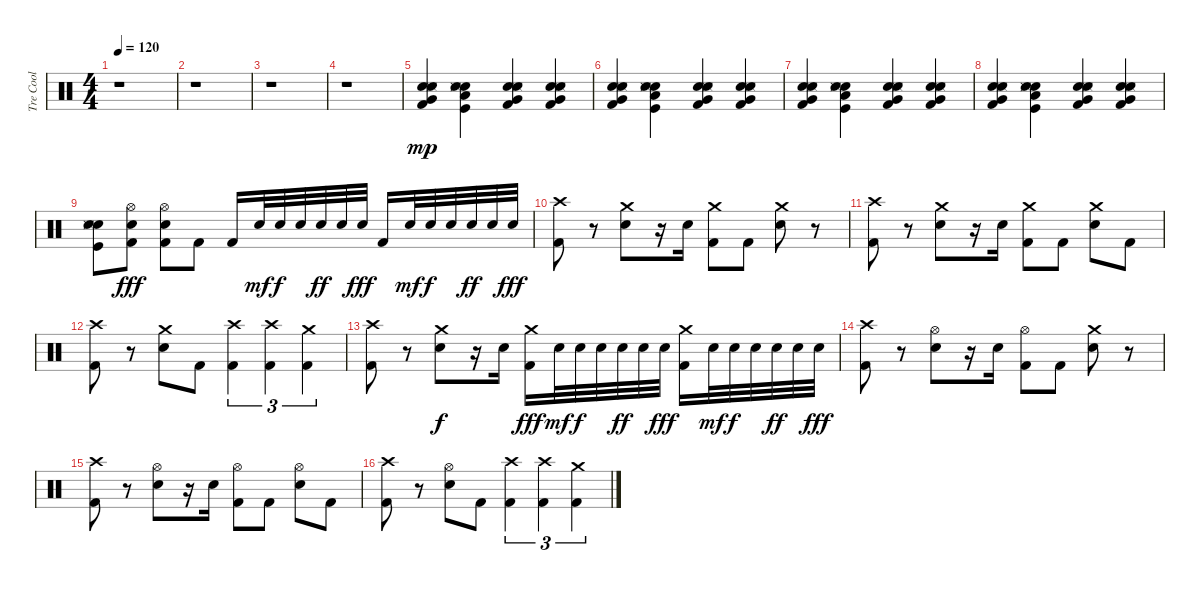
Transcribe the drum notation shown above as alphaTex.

\track ("Tre Cool" "Tre Cool") {instrument percussion}
\staff {score}
\articulation defaults
\ts (4 4)
\tempo 120
\clef neutral
\ks c
r.1{dy mp} |
r.1 |
r.1 |
r.1 |
("Very Low Tom (hit)" "Kick (hit) 2" "Electric Snare (hit)" "Snare (side stick) 3" "Hand Clap (hit)").4 ("Kick (hit)" "Electric Snare (hit)" "Snare (side stick) 3" "Hand Clap (hit)" "Low Floor Tom (hit)").4 ("Very Low Tom (hit)" "Kick (hit) 2" "Electric Snare (hit)" "Snare (side stick) 3" "Hand Clap (hit)").4 ("Very Low Tom (hit)" "Kick (hit) 2" "Electric Snare (hit)" "Snare (side stick) 3" "Hand Clap (hit)").4 |
("Very Low Tom (hit)" "Kick (hit) 2" "Electric Snare (hit)" "Snare (side stick) 3" "Hand Clap (hit)").4 ("Kick (hit)" "Electric Snare (hit)" "Snare (side stick) 3" "Hand Clap (hit)" "Low Floor Tom (hit)").4 ("Very Low Tom (hit)" "Kick (hit) 2" "Electric Snare (hit)" "Snare (side stick) 3" "Hand Clap (hit)").4 ("Very Low Tom (hit)" "Kick (hit) 2" "Electric Snare (hit)" "Snare (side stick) 3" "Hand Clap (hit)").4 |
("Very Low Tom (hit)" "Kick (hit) 2" "Electric Snare (hit)" "Snare (side stick) 3" "Hand Clap (hit)").4 ("Kick (hit)" "Electric Snare (hit)" "Snare (side stick) 3" "Hand Clap (hit)" "Low Floor Tom (hit)").4 ("Very Low Tom (hit)" "Kick (hit) 2" "Electric Snare (hit)" "Snare (side stick) 3" "Hand Clap (hit)").4 ("Very Low Tom (hit)" "Electric Snare (hit)" "Snare (side stick) 3" "Hand Clap (hit)" "Kick (hit) 2").4 |
("Very Low Tom (hit)" "Kick (hit) 2" "Electric Snare (hit)" "Snare (side stick) 3" "Hand Clap (hit)").4 ("Kick (hit)" "Electric Snare (hit)" "Snare (side stick) 3" "Hand Clap (hit)" "Low Floor Tom (hit)").4 ("Very Low Tom (hit)" "Kick (hit) 2" "Electric Snare (hit)" "Snare (side stick) 3" "Hand Clap (hit)").4 ("Very Low Tom (hit)" "Kick (hit) 2" "Electric Snare (hit)" "Snare (side stick) 3" "Hand Clap (hit)").4 |
("Kick (hit)" "Electric Snare (hit)" "Snare (side stick) 3" "Hand Clap (hit)").8 ("Electric Snare (hit)" "Hi-Hat (open)" "Kick (hit) 2").8{dy fff} ("Electric Snare (hit)" "Hi-Hat (open)" "Kick (hit) 2").8 "Kick (hit) 2".8 "Kick (hit) 2".16 "Electric Snare (hit)".32{dy mf} "Electric Snare (hit)".32{dy f} "Electric Snare (hit)".32 "Electric Snare (hit)".32{dy ff} "Electric Snare (hit)".32 "Electric Snare (hit)".32{dy fff} "Kick (hit) 2".16 "Electric Snare (hit)".32{dy mf} "Electric Snare (hit)".32{dy f} "Electric Snare (hit)".32 "Electric Snare (hit)".32{dy ff} "Electric Snare (hit)".32 "Electric Snare (hit)".32{dy fff} |
("Kick (hit) 2" "Crash high (hit)").8 r.8 ("Electric Snare (hit)" "Crash medium (hit)").8 r.16 "Electric Snare (hit)".16 ("Kick (hit) 2" "Crash medium (hit)").8 "Kick (hit) 2".8 ("Electric Snare (hit)" "Crash medium (hit)").8 r.8 |
("Kick (hit) 2" "Crash high (hit)").8 r.8 ("Electric Snare (hit)" "Crash medium (hit)").8 r.16 "Electric Snare (hit)".16 ("Kick (hit) 2" "Crash medium (hit)").8 "Kick (hit) 2".8 ("Electric Snare (hit)" "Crash medium (hit)").8 "Kick (hit) 2".8 |
("Kick (hit) 2" "Crash high (hit)").8 r.8 ("Electric Snare (hit)" "Crash medium (hit)").8 "Kick (hit) 2".8 ("Kick (hit) 2" "Crash high (hit)").4{tu (3 2)} ("Kick (hit) 2" "Crash high (hit)").4{tu (3 2)} ("Crash medium (hit)" "Kick (hit) 2").4{tu (3 2)} |
("Kick (hit) 2" "Crash high (hit)").8 r.8 ("Electric Snare (hit)" "Crash medium (hit)").8{dy f} r.16 "Electric Snare (hit)".16 ("Kick (hit) 2" "Crash medium (hit)").16{dy fff} "Electric Snare (hit)".32{dy mf} "Electric Snare (hit)".32{dy f} "Electric Snare (hit)".32 "Electric Snare (hit)".32{dy ff} "Electric Snare (hit)".32 "Electric Snare (hit)".32{dy fff} ("Kick (hit) 2" "Crash medium (hit)").16 "Electric Snare (hit)".32{dy mf} "Electric Snare (hit)".32{dy f} "Electric Snare (hit)".32 "Electric Snare (hit)".32{dy ff} "Electric Snare (hit)".32 "Electric Snare (hit)".32{dy fff} |
("Crash high (hit)" "Kick (hit) 2").8 r.8 ("Hi-Hat (open)" "Electric Snare (hit)").8 r.16 "Electric Snare (hit)".16 ("Hi-Hat (open)" "Kick (hit) 2").8 "Kick (hit) 2".8 ("Crash medium (hit)" "Electric Snare (hit)").8 r.8 |
("Crash high (hit)" "Kick (hit) 2").8 r.8 ("Hi-Hat (open)" "Electric Snare (hit)").8 r.16 "Electric Snare (hit)".16 ("Hi-Hat (open)" "Kick (hit) 2").8 "Kick (hit) 2".8 ("Hi-Hat (open)" "Electric Snare (hit)").8 "Kick (hit) 2".8 |
("Kick (hit) 2" "Crash high (hit)").8 r.8 ("Electric Snare (hit)" "Hi-Hat (open)").8 "Kick (hit) 2".8 ("Kick (hit) 2" "Crash high (hit)").4{tu (3 2)} ("Kick (hit) 2" "Crash high (hit)").4{tu (3 2)} ("Kick (hit) 2" "Crash medium (hit)").4{tu (3 2)}
